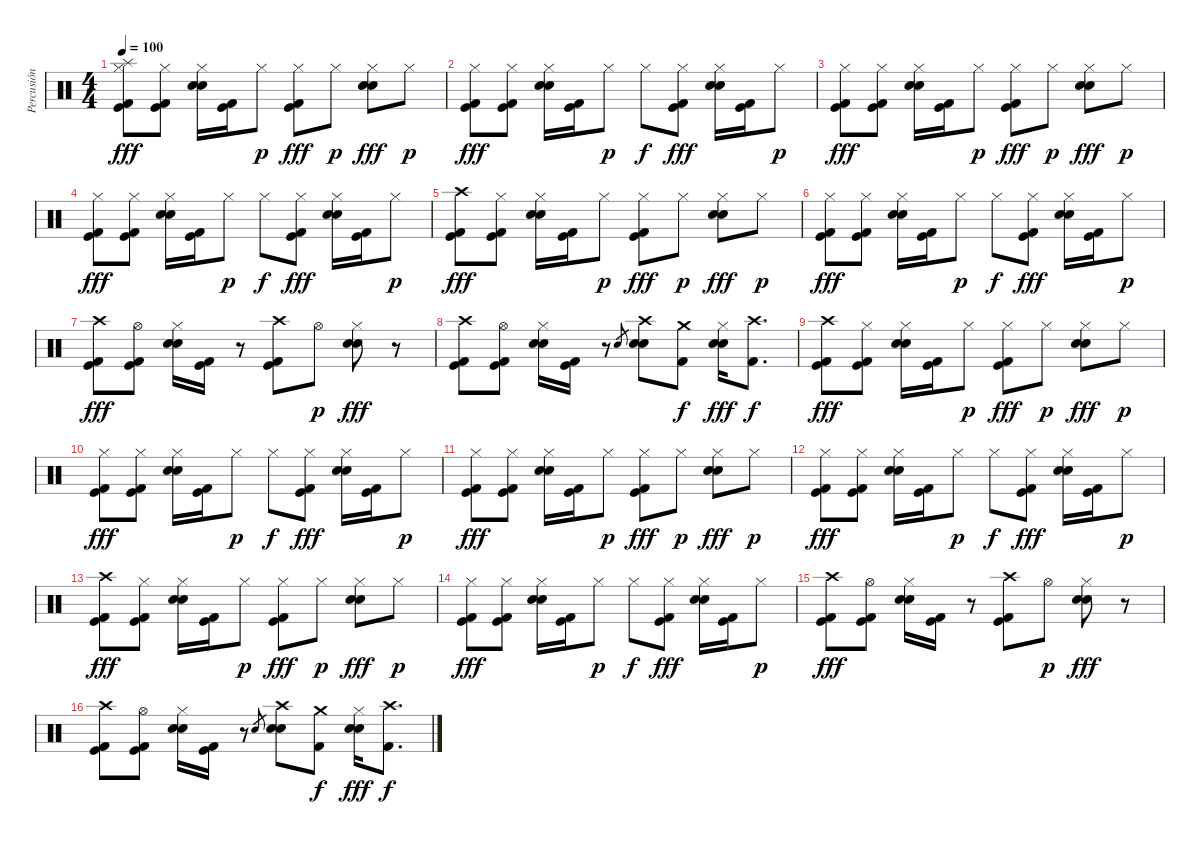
\track ("Percusión" "Percusión") {instrument percussion}
\staff {score}
\articulation defaults
\ts (4 4)
\tempo 100
\clef neutral
\ks c
("Splash (hit)" "Hi-Hat (closed)" "Kick (hit)" "Kick (hit) 2").8{dy fff} ("Hi-Hat (closed)" "Kick (hit)" "Kick (hit) 2").8 ("Hi-Hat (closed)" "Snare (hit) 2" "Electric Snare (hit)").16 ("Kick (hit)" "Kick (hit) 2").16 "Hi-Hat (closed)".8{dy p} ("Hi-Hat (closed)" "Kick (hit)" "Kick (hit) 2").8{dy fff} "Hi-Hat (closed)".8{dy p} ("Hi-Hat (closed)" "Snare (hit) 2" "Electric Snare (hit)").8{dy fff} "Hi-Hat (closed)".8{dy p} |
("Hi-Hat (closed)" "Kick (hit)" "Kick (hit) 2").8{dy fff} ("Hi-Hat (closed)" "Kick (hit)" "Kick (hit) 2").8 ("Hi-Hat (closed)" "Snare (hit) 2" "Electric Snare (hit)").16 ("Kick (hit)" "Kick (hit) 2").16 "Hi-Hat (closed)".8{dy p} "Hi-Hat (closed)".8{dy f} ("Hi-Hat (closed)" "Kick (hit)" "Kick (hit) 2").8{dy fff} ("Hi-Hat (closed)" "Snare (hit) 2" "Electric Snare (hit)").16 ("Kick (hit)" "Kick (hit) 2").16 "Hi-Hat (closed)".8{dy p} |
("Hi-Hat (closed)" "Kick (hit)" "Kick (hit) 2").8{dy fff} ("Hi-Hat (closed)" "Kick (hit)" "Kick (hit) 2").8 ("Hi-Hat (closed)" "Snare (hit) 2" "Electric Snare (hit)").16 ("Kick (hit)" "Kick (hit) 2").16 "Hi-Hat (closed)".8{dy p} ("Hi-Hat (closed)" "Kick (hit)" "Kick (hit) 2").8{dy fff} "Hi-Hat (closed)".8{dy p} ("Hi-Hat (closed)" "Snare (hit) 2" "Electric Snare (hit)").8{dy fff} "Hi-Hat (closed)".8{dy p} |
("Hi-Hat (closed)" "Kick (hit)" "Kick (hit) 2").8{dy fff} ("Hi-Hat (closed)" "Kick (hit)" "Kick (hit) 2").8 ("Hi-Hat (closed)" "Snare (hit) 2" "Electric Snare (hit)").16 ("Kick (hit)" "Kick (hit) 2").16 "Hi-Hat (closed)".8{dy p} "Hi-Hat (closed)".8{dy f} ("Hi-Hat (closed)" "Kick (hit)" "Kick (hit) 2").8{dy fff} ("Hi-Hat (closed)" "Snare (hit) 2" "Electric Snare (hit)").16 ("Kick (hit)" "Kick (hit) 2").16 "Hi-Hat (closed)".8{dy p} |
("Crash high (hit)" "Kick (hit)" "Kick (hit) 2").8{dy fff} ("Hi-Hat (closed)" "Kick (hit)" "Kick (hit) 2").8 ("Hi-Hat (closed)" "Snare (hit) 2" "Electric Snare (hit)").16 ("Kick (hit)" "Kick (hit) 2").16 "Hi-Hat (closed)".8{dy p} ("Hi-Hat (closed)" "Kick (hit)" "Kick (hit) 2").8{dy fff} "Hi-Hat (closed)".8{dy p} ("Hi-Hat (closed)" "Snare (hit) 2" "Electric Snare (hit)").8{dy fff} "Hi-Hat (closed)".8{dy p} |
("Hi-Hat (closed)" "Kick (hit)" "Kick (hit) 2").8{dy fff} ("Hi-Hat (closed)" "Kick (hit)" "Kick (hit) 2").8 ("Hi-Hat (closed)" "Snare (hit) 2" "Electric Snare (hit)").16 ("Kick (hit)" "Kick (hit) 2").16 "Hi-Hat (closed)".8{dy p} "Hi-Hat (closed)".8{dy f} ("Hi-Hat (closed)" "Kick (hit)" "Kick (hit) 2").8{dy fff} ("Hi-Hat (closed)" "Snare (hit) 2" "Electric Snare (hit)").16 ("Kick (hit)" "Kick (hit) 2").16 "Hi-Hat (closed)".8{dy p} |
("Crash high (hit)" "Kick (hit)" "Kick (hit) 2").8{dy fff} ("Hi-Hat (open)" "Kick (hit)" "Kick (hit) 2").8 ("Hi-Hat (closed)" "Snare (hit) 2" "Electric Snare (hit)").16 ("Kick (hit)" "Kick (hit) 2").16 r.8 ("Crash high (hit)" "Kick (hit)" "Kick (hit) 2").8 "Hi-Hat (open)".8{dy p} ("Hi-Hat (closed)" "Snare (hit) 2" "Electric Snare (hit)").8{dy fff} r.8 |
("Crash high (hit)" "Kick (hit)" "Kick (hit) 2").8 ("Hi-Hat (open)" "Kick (hit)" "Kick (hit) 2").8 ("Hi-Hat (closed)" "Snare (hit) 2" "Electric Snare (hit)").16 ("Kick (hit)" "Kick (hit) 2").16 r.8 "Snare (hit) 2".8{gr} ("Crash high (hit)" "Snare (hit) 2" "Electric Snare (hit)").8 ("Crash medium (hit)" "Kick (hit) 2").8{dy f} ("Hi-Hat (closed)" "Snare (hit) 2" "Electric Snare (hit)").16{dy fff} ("Crash high (hit)" "Kick (hit) 2").8{d dy f} |
("Crash high (hit)" "Kick (hit)" "Kick (hit) 2").8{dy fff} ("Hi-Hat (closed)" "Kick (hit)" "Kick (hit) 2").8 ("Hi-Hat (closed)" "Snare (hit) 2" "Electric Snare (hit)").16 ("Kick (hit)" "Kick (hit) 2").16 "Hi-Hat (closed)".8{dy p} ("Hi-Hat (closed)" "Kick (hit)" "Kick (hit) 2").8{dy fff} "Hi-Hat (closed)".8{dy p} ("Hi-Hat (closed)" "Snare (hit) 2" "Electric Snare (hit)").8{dy fff} "Hi-Hat (closed)".8{dy p} |
("Hi-Hat (closed)" "Kick (hit)" "Kick (hit) 2").8{dy fff} ("Hi-Hat (closed)" "Kick (hit)" "Kick (hit) 2").8 ("Hi-Hat (closed)" "Snare (hit) 2" "Electric Snare (hit)").16 ("Kick (hit)" "Kick (hit) 2").16 "Hi-Hat (closed)".8{dy p} "Hi-Hat (closed)".8{dy f} ("Hi-Hat (closed)" "Kick (hit)" "Kick (hit) 2").8{dy fff} ("Hi-Hat (closed)" "Snare (hit) 2" "Electric Snare (hit)").16 ("Kick (hit)" "Kick (hit) 2").16 "Hi-Hat (closed)".8{dy p} |
("Hi-Hat (closed)" "Kick (hit)" "Kick (hit) 2").8{dy fff} ("Hi-Hat (closed)" "Kick (hit)" "Kick (hit) 2").8 ("Hi-Hat (closed)" "Snare (hit) 2" "Electric Snare (hit)").16 ("Kick (hit)" "Kick (hit) 2").16 "Hi-Hat (closed)".8{dy p} ("Hi-Hat (closed)" "Kick (hit)" "Kick (hit) 2").8{dy fff} "Hi-Hat (closed)".8{dy p} ("Hi-Hat (closed)" "Snare (hit) 2" "Electric Snare (hit)").8{dy fff} "Hi-Hat (closed)".8{dy p} |
("Hi-Hat (closed)" "Kick (hit)" "Kick (hit) 2").8{dy fff} ("Hi-Hat (closed)" "Kick (hit)" "Kick (hit) 2").8 ("Hi-Hat (closed)" "Snare (hit) 2" "Electric Snare (hit)").16 ("Kick (hit)" "Kick (hit) 2").16 "Hi-Hat (closed)".8{dy p} "Hi-Hat (closed)".8{dy f} ("Hi-Hat (closed)" "Kick (hit)" "Kick (hit) 2").8{dy fff} ("Hi-Hat (closed)" "Snare (hit) 2" "Electric Snare (hit)").16 ("Kick (hit)" "Kick (hit) 2").16 "Hi-Hat (closed)".8{dy p} |
("Crash high (hit)" "Kick (hit)" "Kick (hit) 2").8{dy fff} ("Hi-Hat (closed)" "Kick (hit)" "Kick (hit) 2").8 ("Hi-Hat (closed)" "Snare (hit) 2" "Electric Snare (hit)").16 ("Kick (hit)" "Kick (hit) 2").16 "Hi-Hat (closed)".8{dy p} ("Hi-Hat (closed)" "Kick (hit)" "Kick (hit) 2").8{dy fff} "Hi-Hat (closed)".8{dy p} ("Hi-Hat (closed)" "Snare (hit) 2" "Electric Snare (hit)").8{dy fff} "Hi-Hat (closed)".8{dy p} |
("Hi-Hat (closed)" "Kick (hit)" "Kick (hit) 2").8{dy fff} ("Hi-Hat (closed)" "Kick (hit)" "Kick (hit) 2").8 ("Hi-Hat (closed)" "Snare (hit) 2" "Electric Snare (hit)").16 ("Kick (hit)" "Kick (hit) 2").16 "Hi-Hat (closed)".8{dy p} "Hi-Hat (closed)".8{dy f} ("Hi-Hat (closed)" "Kick (hit)" "Kick (hit) 2").8{dy fff} ("Hi-Hat (closed)" "Snare (hit) 2" "Electric Snare (hit)").16 ("Kick (hit)" "Kick (hit) 2").16 "Hi-Hat (closed)".8{dy p} |
("Crash high (hit)" "Kick (hit)" "Kick (hit) 2").8{dy fff} ("Hi-Hat (open)" "Kick (hit)" "Kick (hit) 2").8 ("Hi-Hat (closed)" "Snare (hit) 2" "Electric Snare (hit)").16 ("Kick (hit)" "Kick (hit) 2").16 r.8 ("Crash high (hit)" "Kick (hit)" "Kick (hit) 2").8 "Hi-Hat (open)".8{dy p} ("Hi-Hat (closed)" "Snare (hit) 2" "Electric Snare (hit)").8{dy fff} r.8 |
("Crash high (hit)" "Kick (hit)" "Kick (hit) 2").8 ("Hi-Hat (open)" "Kick (hit)" "Kick (hit) 2").8 ("Hi-Hat (closed)" "Snare (hit) 2" "Electric Snare (hit)").16 ("Kick (hit)" "Kick (hit) 2").16 r.8 "Snare (hit) 2".8{gr} ("Crash high (hit)" "Snare (hit) 2" "Electric Snare (hit)").8 ("Crash medium (hit)" "Kick (hit) 2").8{dy f} ("Hi-Hat (closed)" "Snare (hit) 2" "Electric Snare (hit)").16{dy fff} ("Crash high (hit)" "Kick (hit) 2").8{d dy f}
